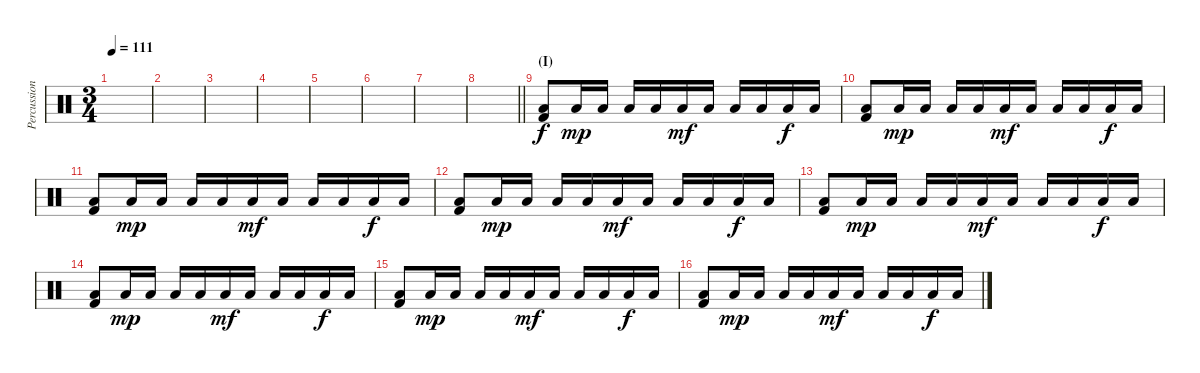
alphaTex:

\track ("Percussion 1" "Percussion") {instrument percussion}
\staff {score}
\articulation defaults
\ts (3 4)
\tempo 111
\clef neutral
\ks c
|
|
|
|
|
|
|
\barLineRight lightlight
|
\section ("" "(I)")
("Low Floor Tom (hit)" "Kick (hit) 2").8{volume 8} "Low Tom (hit)".16{dy mp} "Low Tom (hit)".16 "Low Tom (hit)".16 "Low Tom (hit)".16 "Low Tom (hit)".16{dy mf} "Low Tom (hit)".16 "Low Tom (hit)".16 "Low Tom (hit)".16 "Low Floor Tom (hit)".16{dy f} "Low Floor Tom (hit)".16 |
("Low Floor Tom (hit)" "Kick (hit) 2").8 "Low Tom (hit)".16{dy mp} "Low Tom (hit)".16 "Low Tom (hit)".16 "Low Tom (hit)".16 "Low Tom (hit)".16{dy mf} "Low Tom (hit)".16 "Low Tom (hit)".16 "Low Tom (hit)".16 "Low Floor Tom (hit)".16{dy f} "Low Floor Tom (hit)".16 |
("Low Floor Tom (hit)" "Kick (hit) 2").8 "Low Tom (hit)".16{dy mp} "Low Tom (hit)".16 "Low Tom (hit)".16 "Low Tom (hit)".16 "Low Tom (hit)".16{dy mf} "Low Tom (hit)".16 "Low Tom (hit)".16 "Low Tom (hit)".16 "Low Floor Tom (hit)".16{dy f} "Low Floor Tom (hit)".16 |
("Low Floor Tom (hit)" "Kick (hit) 2").8 "Low Tom (hit)".16{dy mp} "Low Tom (hit)".16 "Low Tom (hit)".16 "Low Tom (hit)".16 "Low Tom (hit)".16{dy mf} "Low Tom (hit)".16 "Low Tom (hit)".16 "Low Tom (hit)".16 "Low Floor Tom (hit)".16{dy f} "Low Floor Tom (hit)".16 |
("Low Floor Tom (hit)" "Kick (hit) 2").8 "Low Tom (hit)".16{dy mp} "Low Tom (hit)".16 "Low Tom (hit)".16 "Low Tom (hit)".16 "Low Tom (hit)".16{dy mf} "Low Tom (hit)".16 "Low Tom (hit)".16 "Low Tom (hit)".16 "Low Floor Tom (hit)".16{dy f} "Low Floor Tom (hit)".16 |
("Low Floor Tom (hit)" "Kick (hit) 2").8 "Low Tom (hit)".16{dy mp} "Low Tom (hit)".16 "Low Tom (hit)".16 "Low Tom (hit)".16 "Low Tom (hit)".16{dy mf} "Low Tom (hit)".16 "Low Tom (hit)".16 "Low Tom (hit)".16 "Low Floor Tom (hit)".16{dy f} "Low Floor Tom (hit)".16 |
("Low Floor Tom (hit)" "Kick (hit) 2").8 "Low Tom (hit)".16{dy mp} "Low Tom (hit)".16 "Low Tom (hit)".16 "Low Tom (hit)".16 "Low Tom (hit)".16{dy mf} "Low Tom (hit)".16 "Low Tom (hit)".16 "Low Tom (hit)".16 "Low Floor Tom (hit)".16{dy f} "Low Floor Tom (hit)".16 |
("Low Floor Tom (hit)" "Kick (hit) 2").8 "Low Tom (hit)".16{dy mp} "Low Tom (hit)".16 "Low Tom (hit)".16 "Low Tom (hit)".16 "Low Tom (hit)".16{dy mf} "Low Tom (hit)".16 "Low Tom (hit)".16 "Low Tom (hit)".16 "Low Floor Tom (hit)".16{dy f} "Low Floor Tom (hit)".16
